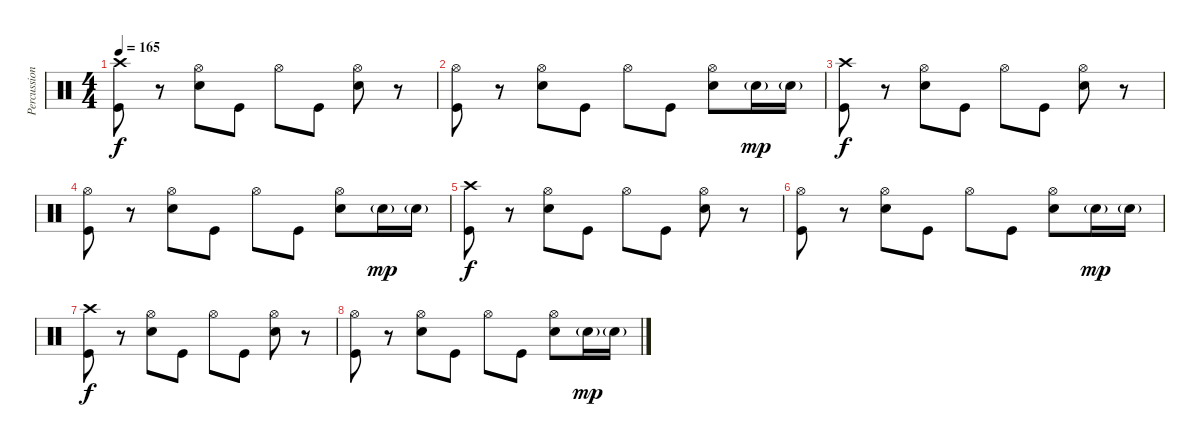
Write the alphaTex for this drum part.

\track ("Percussion" "Percussion") {instrument percussion}
\staff {score}
\articulation defaults
\ts (4 4)
\tempo 165
\clef neutral
\ks c
("Crash high (hit)" "Kick (hit)").8{dy f} r.8 ("Hi-Hat (open)" "Snare (hit) 2").8 "Kick (hit)".8 "Hi-Hat (open)".8 "Kick (hit)".8 ("Hi-Hat (open)" "Snare (hit) 2").8 r.8 |
("Hi-Hat (open)" "Kick (hit)").8 r.8 ("Hi-Hat (open)" "Snare (hit) 2").8 "Kick (hit)".8 "Hi-Hat (open)".8 "Kick (hit)".8 ("Hi-Hat (open)" "Snare (hit) 2").8 "Snare (hit) 2"{g}.16{dy mp} "Snare (hit) 2"{g}.16 |
("Crash high (hit)" "Kick (hit)").8{dy f} r.8 ("Hi-Hat (open)" "Snare (hit) 2").8 "Kick (hit)".8 "Hi-Hat (open)".8 "Kick (hit)".8 ("Hi-Hat (open)" "Snare (hit) 2").8 r.8 |
("Hi-Hat (open)" "Kick (hit)").8 r.8 ("Hi-Hat (open)" "Snare (hit) 2").8 "Kick (hit)".8 "Hi-Hat (open)".8 "Kick (hit)".8 ("Hi-Hat (open)" "Snare (hit) 2").8 "Snare (hit) 2"{g}.16{dy mp} "Snare (hit) 2"{g}.16 |
("Crash high (hit)" "Kick (hit)").8{dy f} r.8 ("Hi-Hat (open)" "Snare (hit) 2").8 "Kick (hit)".8 "Hi-Hat (open)".8 "Kick (hit)".8 ("Hi-Hat (open)" "Snare (hit) 2").8 r.8 |
("Hi-Hat (open)" "Kick (hit)").8 r.8 ("Hi-Hat (open)" "Snare (hit) 2").8 "Kick (hit)".8 "Hi-Hat (open)".8 "Kick (hit)".8 ("Hi-Hat (open)" "Snare (hit) 2").8 "Snare (hit) 2"{g}.16{dy mp} "Snare (hit) 2"{g}.16 |
("Crash high (hit)" "Kick (hit)").8{dy f} r.8 ("Hi-Hat (open)" "Snare (hit) 2").8 "Kick (hit)".8 "Hi-Hat (open)".8 "Kick (hit)".8 ("Hi-Hat (open)" "Snare (hit) 2").8 r.8 |
("Hi-Hat (open)" "Kick (hit)").8 r.8 ("Hi-Hat (open)" "Snare (hit) 2").8 "Kick (hit)".8 "Hi-Hat (open)".8 "Kick (hit)".8 ("Hi-Hat (open)" "Snare (hit) 2").8 "Snare (hit) 2"{g}.16{dy mp} "Snare (hit) 2"{g}.16
